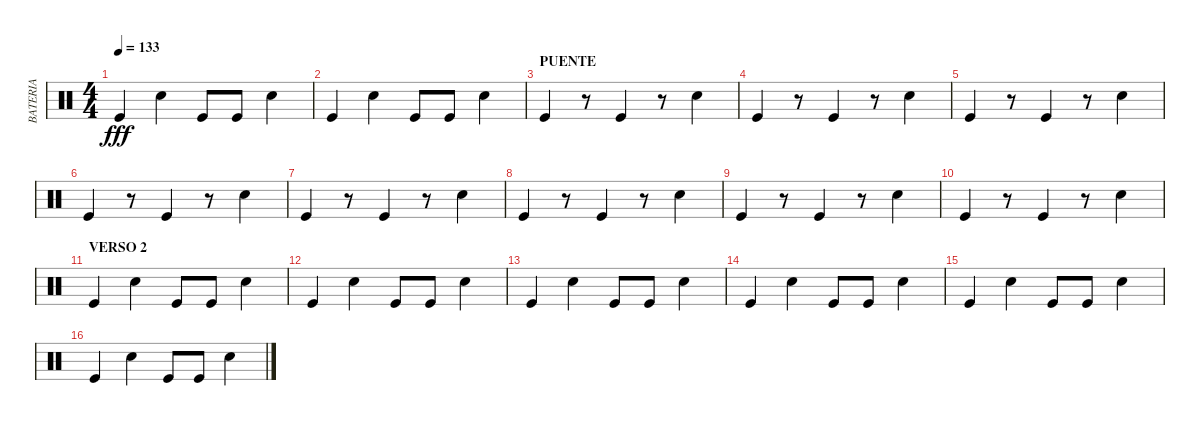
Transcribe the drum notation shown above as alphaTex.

\track ("BATERIA" "BATERIA") {instrument percussion}
\staff {score}
\articulation defaults
\ts (4 4)
\tempo 133
\clef neutral
\ks c "Kick (hit)".4{dy fff} "Electric Snare (hit)".4 "Kick (hit)".8 "Kick (hit)".8 "Electric Snare (hit)".4
|
"Kick (hit)".4 "Electric Snare (hit)".4 "Kick (hit)".8 "Kick (hit)".8 "Electric Snare (hit)".4 |
\section ("" "PUENTE")
"Kick (hit)".4 r.8 "Kick (hit)".4 r.8 "Electric Snare (hit)".4 |
"Kick (hit)".4 r.8 "Kick (hit)".4 r.8 "Electric Snare (hit)".4 |
"Kick (hit)".4 r.8 "Kick (hit)".4 r.8 "Electric Snare (hit)".4 |
"Kick (hit)".4 r.8 "Kick (hit)".4 r.8 "Electric Snare (hit)".4 |
"Kick (hit)".4 r.8 "Kick (hit)".4 r.8 "Electric Snare (hit)".4 |
"Kick (hit)".4 r.8 "Kick (hit)".4 r.8 "Electric Snare (hit)".4 |
"Kick (hit)".4 r.8 "Kick (hit)".4 r.8 "Electric Snare (hit)".4 |
"Kick (hit)".4 r.8 "Kick (hit)".4 r.8 "Electric Snare (hit)".4 |
\section ("" "VERSO 2")
"Kick (hit)".4 "Electric Snare (hit)".4 "Kick (hit)".8 "Kick (hit)".8 "Electric Snare (hit)".4 |
"Kick (hit)".4 "Electric Snare (hit)".4 "Kick (hit)".8 "Kick (hit)".8 "Electric Snare (hit)".4 |
"Kick (hit)".4 "Electric Snare (hit)".4 "Kick (hit)".8 "Kick (hit)".8 "Electric Snare (hit)".4 |
"Kick (hit)".4 "Electric Snare (hit)".4 "Kick (hit)".8 "Kick (hit)".8 "Electric Snare (hit)".4 |
"Kick (hit)".4 "Electric Snare (hit)".4 "Kick (hit)".8 "Kick (hit)".8 "Electric Snare (hit)".4 |
"Kick (hit)".4 "Electric Snare (hit)".4 "Kick (hit)".8 "Kick (hit)".8 "Electric Snare (hit)".4
